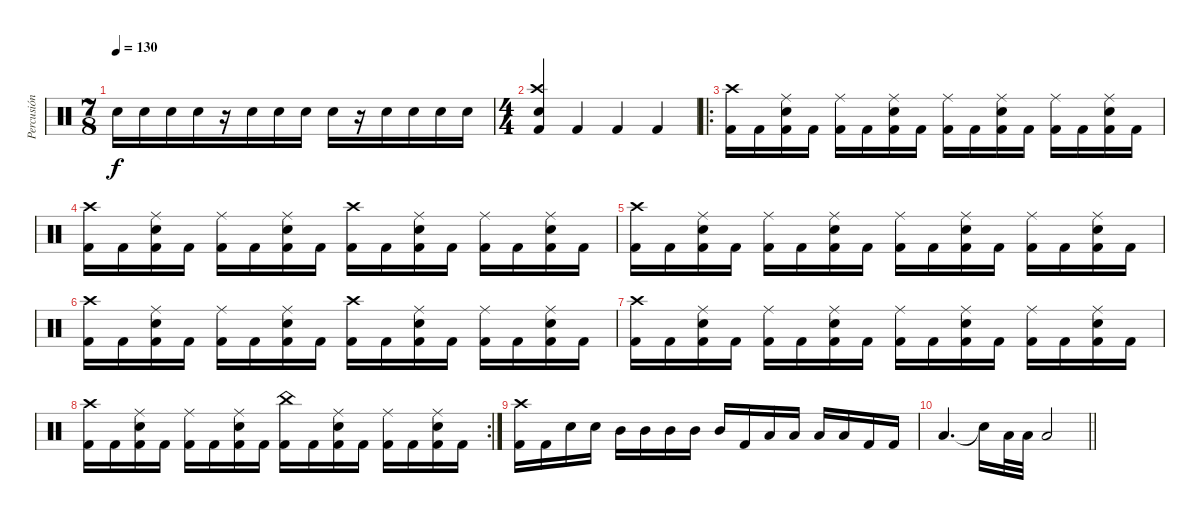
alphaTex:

\track ("Percusión" "Percusión") {instrument percussion}
\staff {score}
\articulation defaults
\ts (7 8)
\tempo 130
\clef neutral
\ks c "Snare (hit) 2".16{dy f} "Snare (hit) 2".16 "Snare (hit) 2".16 "Snare (hit) 2".16
r.16 "Snare (hit) 2".16 "Snare (hit) 2".16 "Snare (hit) 2".16 "Snare (hit) 2".16 r.16 "Snare (hit) 2".16 "Snare (hit) 2".16 "Snare (hit) 2".16 "Snare (hit) 2".16 |
\ts (4 4)
("Crash high (hit)" "Snare (hit) 2" "Kick (hit) 2").4 "Kick (hit) 2".4 "Kick (hit) 2".4 "Kick (hit) 2".4 |
\ro
("Crash high (hit)" "Kick (hit) 2").16 "Kick (hit) 2".16 ("Ride (middle)" "Snare (hit) 2" "Kick (hit) 2").16 "Kick (hit) 2".16 ("Ride (middle)" "Kick (hit) 2").16 "Kick (hit) 2".16 ("Ride (middle)" "Snare (hit) 2" "Kick (hit) 2").16 "Kick (hit) 2".16 ("Ride (middle)" "Kick (hit) 2").16 "Kick (hit) 2".16 ("Ride (middle)" "Snare (hit) 2" "Kick (hit) 2").16 "Kick (hit) 2".16 ("Ride (middle)" "Kick (hit) 2").16 "Kick (hit) 2".16 ("Ride (middle)" "Snare (hit) 2" "Kick (hit) 2").16 "Kick (hit) 2".16 |
("Crash high (hit)" "Kick (hit) 2").16 "Kick (hit) 2".16 ("Ride (middle)" "Snare (hit) 2" "Kick (hit) 2").16 "Kick (hit) 2".16 ("Ride (middle)" "Kick (hit) 2").16 "Kick (hit) 2".16 ("Ride (middle)" "Snare (hit) 2" "Kick (hit) 2").16 "Kick (hit) 2".16 ("Crash high (hit)" "Kick (hit) 2").16 "Kick (hit) 2".16 ("Ride (middle)" "Snare (hit) 2" "Kick (hit) 2").16 "Kick (hit) 2".16 ("Ride (middle)" "Kick (hit) 2").16 "Kick (hit) 2".16 ("Ride (middle)" "Snare (hit) 2" "Kick (hit) 2").16 "Kick (hit) 2".16 |
("Crash high (hit)" "Kick (hit) 2").16 "Kick (hit) 2".16 ("Ride (middle)" "Snare (hit) 2" "Kick (hit) 2").16 "Kick (hit) 2".16 ("Ride (middle)" "Kick (hit) 2").16 "Kick (hit) 2".16 ("Ride (middle)" "Snare (hit) 2" "Kick (hit) 2").16 "Kick (hit) 2".16 ("Ride (middle)" "Kick (hit) 2").16 "Kick (hit) 2".16 ("Ride (middle)" "Snare (hit) 2" "Kick (hit) 2").16 "Kick (hit) 2".16 ("Ride (middle)" "Kick (hit) 2").16 "Kick (hit) 2".16 ("Ride (middle)" "Snare (hit) 2" "Kick (hit) 2").16 "Kick (hit) 2".16 |
("Crash high (hit)" "Kick (hit) 2").16 "Kick (hit) 2".16 ("Ride (middle)" "Snare (hit) 2" "Kick (hit) 2").16 "Kick (hit) 2".16 ("Ride (middle)" "Kick (hit) 2").16 "Kick (hit) 2".16 ("Ride (middle)" "Snare (hit) 2" "Kick (hit) 2").16 "Kick (hit) 2".16 ("Crash high (hit)" "Kick (hit) 2").16 "Kick (hit) 2".16 ("Ride (middle)" "Snare (hit) 2" "Kick (hit) 2").16 "Kick (hit) 2".16 ("Ride (middle)" "Kick (hit) 2").16 "Kick (hit) 2".16 ("Ride (middle)" "Snare (hit) 2" "Kick (hit) 2").16 "Kick (hit) 2".16 |
("Crash high (hit)" "Kick (hit) 2").16 "Kick (hit) 2".16 ("Ride (middle)" "Snare (hit) 2" "Kick (hit) 2").16 "Kick (hit) 2".16 ("Ride (middle)" "Kick (hit) 2").16 "Kick (hit) 2".16 ("Ride (middle)" "Snare (hit) 2" "Kick (hit) 2").16 "Kick (hit) 2".16 ("Ride (middle)" "Kick (hit) 2").16 "Kick (hit) 2".16 ("Ride (middle)" "Snare (hit) 2" "Kick (hit) 2").16 "Kick (hit) 2".16 ("Ride (middle)" "Kick (hit) 2").16 "Kick (hit) 2".16 ("Ride (middle)" "Snare (hit) 2" "Kick (hit) 2").16 "Kick (hit) 2".16 |
\rc 2
("Crash high (hit)" "Kick (hit) 2").16 "Kick (hit) 2".16 ("Ride (middle)" "Snare (hit) 2" "Kick (hit) 2").16 "Kick (hit) 2".16 ("Ride (middle)" "Kick (hit) 2").16 "Kick (hit) 2".16 ("Ride (middle)" "Snare (hit) 2" "Kick (hit) 2").16 "Kick (hit) 2".16 ("China (hit)" "Kick (hit) 2").16 "Kick (hit) 2".16 ("Ride (middle)" "Snare (hit) 2" "Kick (hit) 2").16 "Kick (hit) 2".16 ("Ride (middle)" "Kick (hit) 2").16 "Kick (hit) 2".16 ("Ride (middle)" "Snare (hit) 2" "Kick (hit) 2").16 "Kick (hit) 2".16 |
("Crash high (hit)" "Kick (hit) 2").16 "Kick (hit) 2".16 "Snare (hit) 2".16 "Snare (hit) 2".16 "Mid Tom (hit)".16 "Mid Tom (hit)".16 "Mid Tom (hit)".16 "Mid Tom (hit)".16 "Mid Tom (hit)".16 "Kick (hit) 2".16 "Low Tom (hit)".16 "Low Tom (hit)".16 "Low Tom (hit)".16 "Low Tom (hit)".16 "Kick (hit) 2".16 "Kick (hit) 2".16 |
\barLineRight lightlight "Low Floor Tom (hit)".4{d} "Snare (hit)"{t}.16 "Low Floor Tom (hit)".32 "Low Floor Tom (hit)".32 "Low Floor Tom (hit)".2
